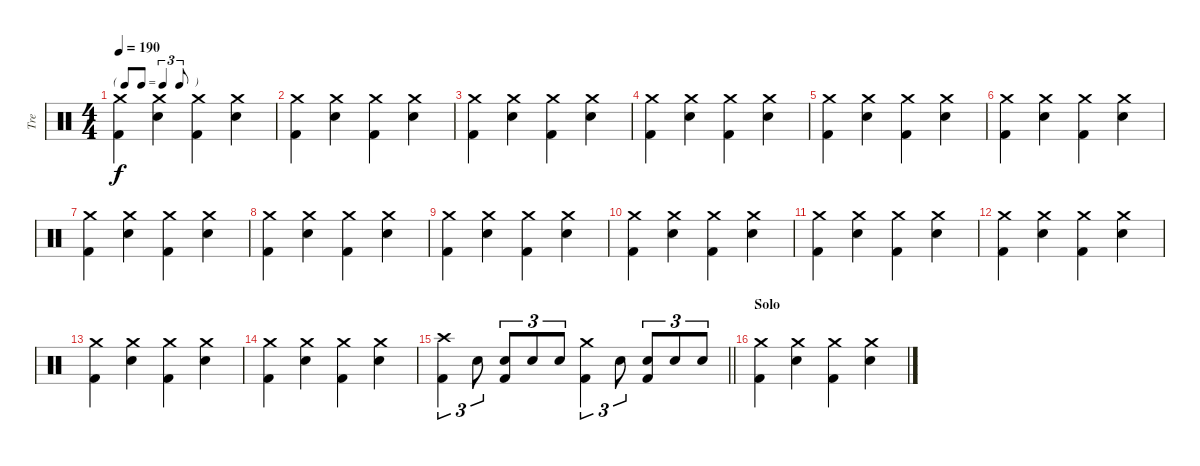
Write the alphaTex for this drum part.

\track ("Tre" "Tre") {instrument percussion}
\staff {score}
\articulation defaults
\ts (4 4)
\tf triplet8th
\tempo 190
\clef neutral
\ks c
("Crash medium (hit)" "Kick (hit) 2").4{dy f} ("Crash medium (hit)" "Snare (hit) 2").4 ("Crash medium (hit)" "Kick (hit) 2").4 ("Crash medium (hit)" "Snare (hit) 2").4 |
("Crash medium (hit)" "Kick (hit) 2").4 ("Crash medium (hit)" "Snare (hit) 2").4 ("Crash medium (hit)" "Kick (hit) 2").4 ("Crash medium (hit)" "Snare (hit) 2").4 |
("Crash medium (hit)" "Kick (hit) 2").4 ("Crash medium (hit)" "Snare (hit) 2").4 ("Crash medium (hit)" "Kick (hit) 2").4 ("Crash medium (hit)" "Snare (hit) 2").4 |
("Crash medium (hit)" "Kick (hit) 2").4 ("Crash medium (hit)" "Snare (hit) 2").4 ("Crash medium (hit)" "Kick (hit) 2").4 ("Crash medium (hit)" "Snare (hit) 2").4 |
("Crash medium (hit)" "Kick (hit) 2").4 ("Crash medium (hit)" "Snare (hit) 2").4 ("Crash medium (hit)" "Kick (hit) 2").4 ("Crash medium (hit)" "Snare (hit) 2").4 |
("Crash medium (hit)" "Kick (hit) 2").4 ("Crash medium (hit)" "Snare (hit) 2").4 ("Crash medium (hit)" "Kick (hit) 2").4 ("Crash medium (hit)" "Snare (hit) 2").4 |
("Crash medium (hit)" "Kick (hit) 2").4 ("Crash medium (hit)" "Snare (hit) 2").4 ("Crash medium (hit)" "Kick (hit) 2").4 ("Crash medium (hit)" "Snare (hit) 2").4 |
("Crash medium (hit)" "Kick (hit) 2").4 ("Crash medium (hit)" "Snare (hit) 2").4 ("Crash medium (hit)" "Kick (hit) 2").4 ("Crash medium (hit)" "Snare (hit) 2").4 |
("Crash medium (hit)" "Kick (hit) 2").4 ("Crash medium (hit)" "Snare (hit) 2").4 ("Crash medium (hit)" "Kick (hit) 2").4 ("Crash medium (hit)" "Snare (hit) 2").4 |
("Crash medium (hit)" "Kick (hit) 2").4 ("Crash medium (hit)" "Snare (hit) 2").4 ("Crash medium (hit)" "Kick (hit) 2").4 ("Crash medium (hit)" "Snare (hit) 2").4 |
("Crash medium (hit)" "Kick (hit) 2").4 ("Crash medium (hit)" "Snare (hit) 2").4 ("Crash medium (hit)" "Kick (hit) 2").4 ("Crash medium (hit)" "Snare (hit) 2").4 |
("Crash medium (hit)" "Kick (hit) 2").4 ("Crash medium (hit)" "Snare (hit) 2").4 ("Crash medium (hit)" "Kick (hit) 2").4 ("Crash medium (hit)" "Snare (hit) 2").4 |
("Crash medium (hit)" "Kick (hit) 2").4 ("Crash medium (hit)" "Snare (hit) 2").4 ("Crash medium (hit)" "Kick (hit) 2").4 ("Crash medium (hit)" "Snare (hit) 2").4 |
("Crash medium (hit)" "Kick (hit) 2").4 ("Crash medium (hit)" "Snare (hit) 2").4 ("Crash medium (hit)" "Kick (hit) 2").4 ("Crash medium (hit)" "Snare (hit) 2").4 |
\barLineRight lightlight
("Crash high (hit)" "Kick (hit) 2").4{tu (3 2)} "Snare (hit) 2".8{tu (3 2)} ("Snare (hit) 2" "Kick (hit) 2").8{tu (3 2)} "Snare (hit) 2".8{tu (3 2)} "Snare (hit) 2".8{tu (3 2)} ("Crash medium (hit)" "Kick (hit) 2").4{tu (3 2)} "Snare (hit) 2".8{tu (3 2)} ("Snare (hit) 2" "Kick (hit) 2").8{tu (3 2)} "Snare (hit) 2".8{tu (3 2)} "Snare (hit) 2".8{tu (3 2)} |
\section ("" "Solo")
("Crash medium (hit)" "Kick (hit) 2").4 ("Crash medium (hit)" "Snare (hit) 2").4 ("Crash medium (hit)" "Kick (hit) 2").4 ("Crash medium (hit)" "Snare (hit) 2").4
